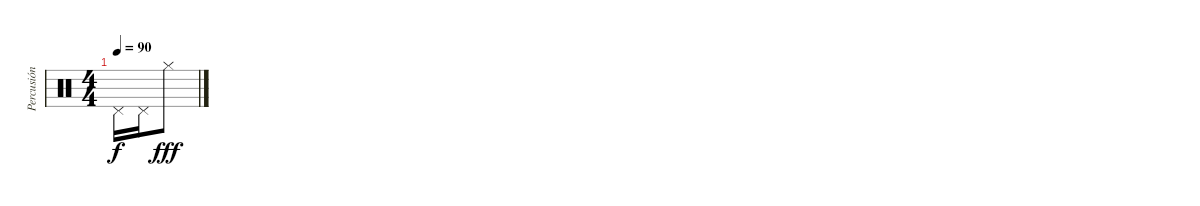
\track ("Percusión" "Percusión") {instrument percussion}
\staff {score}
\articulation defaults
\ts (4 4)
\tempo 90
\clef neutral
\ks c "Pedal Hi-Hat (hit)".16{dy f} "Pedal Hi-Hat (hit)".16 "Hi-Hat (closed)".8{dy fff}
